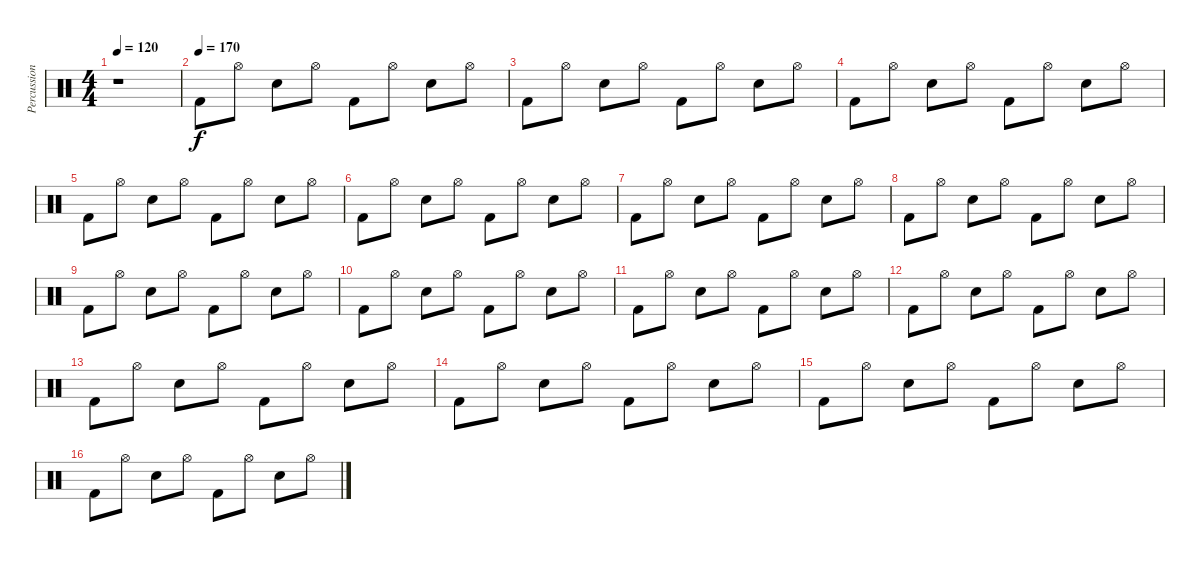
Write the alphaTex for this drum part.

\track ("Percussion" "Percussion") {instrument percussion}
\staff {score}
\articulation defaults
\ts (4 4)
\tempo 120
\clef neutral
\ks c
r.1{dy f} |
\tempo (170)
"Kick (hit) 2".8 "Hi-Hat (open)".8 "Snare (hit) 2".8 "Hi-Hat (open)".8 "Kick (hit) 2".8 "Hi-Hat (open)".8 "Snare (hit) 2".8 "Hi-Hat (open)".8 |
"Kick (hit) 2".8 "Hi-Hat (open)".8 "Snare (hit) 2".8 "Hi-Hat (open)".8 "Kick (hit) 2".8 "Hi-Hat (open)".8 "Snare (hit) 2".8 "Hi-Hat (open)".8 |
"Kick (hit) 2".8 "Hi-Hat (open)".8 "Snare (hit) 2".8 "Hi-Hat (open)".8 "Kick (hit) 2".8 "Hi-Hat (open)".8 "Snare (hit) 2".8 "Hi-Hat (open)".8 |
"Kick (hit) 2".8 "Hi-Hat (open)".8 "Snare (hit) 2".8 "Hi-Hat (open)".8 "Kick (hit) 2".8 "Hi-Hat (open)".8 "Snare (hit) 2".8 "Hi-Hat (open)".8 |
"Kick (hit) 2".8 "Hi-Hat (open)".8 "Snare (hit) 2".8 "Hi-Hat (open)".8 "Kick (hit) 2".8 "Hi-Hat (open)".8 "Snare (hit) 2".8 "Hi-Hat (open)".8 |
"Kick (hit) 2".8 "Hi-Hat (open)".8 "Snare (hit) 2".8 "Hi-Hat (open)".8 "Kick (hit) 2".8 "Hi-Hat (open)".8 "Snare (hit) 2".8 "Hi-Hat (open)".8 |
"Kick (hit) 2".8 "Hi-Hat (open)".8 "Snare (hit) 2".8 "Hi-Hat (open)".8 "Kick (hit) 2".8 "Hi-Hat (open)".8 "Snare (hit) 2".8 "Hi-Hat (open)".8 |
"Kick (hit) 2".8 "Hi-Hat (open)".8 "Snare (hit) 2".8 "Hi-Hat (open)".8 "Kick (hit) 2".8 "Hi-Hat (open)".8 "Snare (hit) 2".8 "Hi-Hat (open)".8 |
"Kick (hit) 2".8 "Hi-Hat (open)".8 "Snare (hit) 2".8 "Hi-Hat (open)".8 "Kick (hit) 2".8 "Hi-Hat (open)".8 "Snare (hit) 2".8 "Hi-Hat (open)".8 |
"Kick (hit) 2".8 "Hi-Hat (open)".8 "Snare (hit) 2".8 "Hi-Hat (open)".8 "Kick (hit) 2".8 "Hi-Hat (open)".8 "Snare (hit) 2".8 "Hi-Hat (open)".8 |
"Kick (hit) 2".8 "Hi-Hat (open)".8 "Snare (hit) 2".8 "Hi-Hat (open)".8 "Kick (hit) 2".8 "Hi-Hat (open)".8 "Snare (hit) 2".8 "Hi-Hat (open)".8 |
"Kick (hit) 2".8 "Hi-Hat (open)".8 "Snare (hit) 2".8 "Hi-Hat (open)".8 "Kick (hit) 2".8 "Hi-Hat (open)".8 "Snare (hit) 2".8 "Hi-Hat (open)".8 |
"Kick (hit) 2".8 "Hi-Hat (open)".8 "Snare (hit) 2".8 "Hi-Hat (open)".8 "Kick (hit) 2".8 "Hi-Hat (open)".8 "Snare (hit) 2".8 "Hi-Hat (open)".8 |
"Kick (hit) 2".8 "Hi-Hat (open)".8 "Snare (hit) 2".8 "Hi-Hat (open)".8 "Kick (hit) 2".8 "Hi-Hat (open)".8 "Snare (hit) 2".8 "Hi-Hat (open)".8 |
"Kick (hit) 2".8 "Hi-Hat (open)".8 "Snare (hit) 2".8 "Hi-Hat (open)".8 "Kick (hit) 2".8 "Hi-Hat (open)".8 "Snare (hit) 2".8 "Hi-Hat (open)".8
